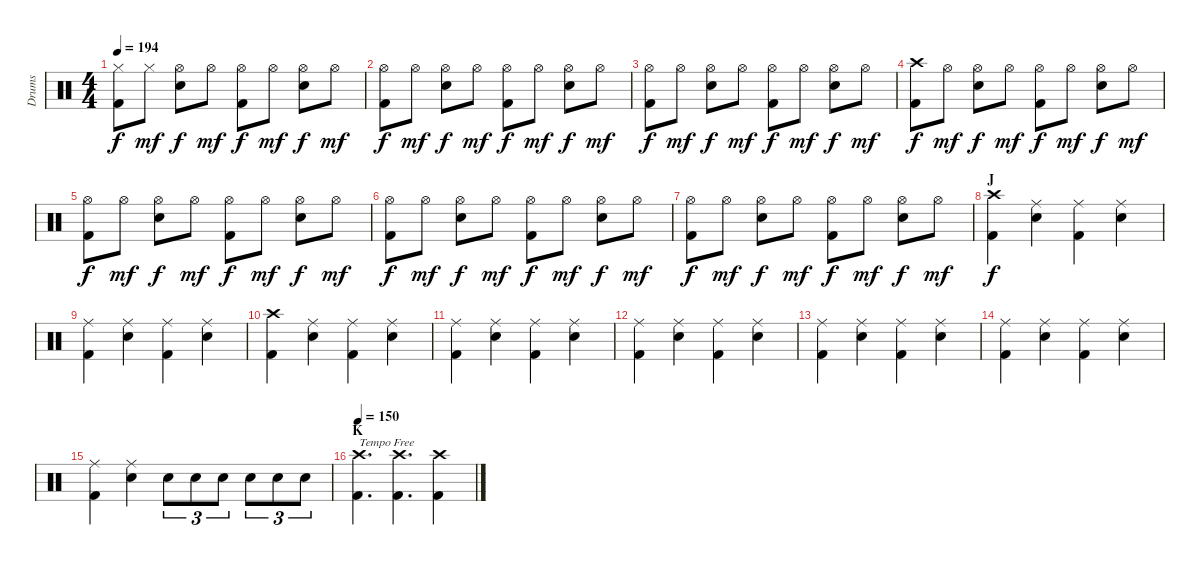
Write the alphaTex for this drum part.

\track ("Drums" "Drums") {instrument percussion}
\staff {score}
\articulation defaults
\ts (4 4)
\tempo 194
\clef neutral
\ks c
("Hi-Hat (closed)" "Kick (hit) 2").8{dy f} "Hi-Hat (closed)".8{dy mf} ("Hi-Hat (open)" "Electric Snare (hit)").8{dy f} "Hi-Hat (open)".8{dy mf} ("Hi-Hat (open)" "Kick (hit) 2").8{dy f} "Hi-Hat (open)".8{dy mf} ("Hi-Hat (open)" "Electric Snare (hit)").8{dy f} "Hi-Hat (open)".8{dy mf} |
("Hi-Hat (open)" "Kick (hit) 2").8{dy f} "Hi-Hat (open)".8{dy mf} ("Hi-Hat (open)" "Electric Snare (hit)").8{dy f} "Hi-Hat (open)".8{dy mf} ("Hi-Hat (open)" "Kick (hit) 2").8{dy f} "Hi-Hat (open)".8{dy mf} ("Hi-Hat (open)" "Electric Snare (hit)").8{dy f} "Hi-Hat (open)".8{dy mf} |
("Hi-Hat (open)" "Kick (hit) 2").8{dy f} "Hi-Hat (open)".8{dy mf} ("Hi-Hat (open)" "Electric Snare (hit)").8{dy f} "Hi-Hat (open)".8{dy mf} ("Hi-Hat (open)" "Kick (hit) 2").8{dy f} "Hi-Hat (open)".8{dy mf} ("Hi-Hat (open)" "Electric Snare (hit)").8{dy f} "Hi-Hat (open)".8{dy mf} |
("Crash high (hit)" "Kick (hit) 2").8{dy f} "Hi-Hat (open)".8{dy mf} ("Hi-Hat (open)" "Electric Snare (hit)").8{dy f} "Hi-Hat (open)".8{dy mf} ("Hi-Hat (open)" "Kick (hit) 2").8{dy f} "Hi-Hat (open)".8{dy mf} ("Hi-Hat (open)" "Electric Snare (hit)").8{dy f} "Hi-Hat (open)".8{dy mf} |
("Hi-Hat (open)" "Kick (hit) 2").8{dy f} "Hi-Hat (open)".8{dy mf} ("Hi-Hat (open)" "Electric Snare (hit)").8{dy f} "Hi-Hat (open)".8{dy mf} ("Hi-Hat (open)" "Kick (hit) 2").8{dy f} "Hi-Hat (open)".8{dy mf} ("Hi-Hat (open)" "Electric Snare (hit)").8{dy f} "Hi-Hat (open)".8{dy mf} |
("Hi-Hat (open)" "Kick (hit) 2").8{dy f} "Hi-Hat (open)".8{dy mf} ("Hi-Hat (open)" "Electric Snare (hit)").8{dy f} "Hi-Hat (open)".8{dy mf} ("Hi-Hat (open)" "Kick (hit) 2").8{dy f} "Hi-Hat (open)".8{dy mf} ("Hi-Hat (open)" "Electric Snare (hit)").8{dy f} "Hi-Hat (open)".8{dy mf} |
("Hi-Hat (open)" "Kick (hit) 2").8{dy f} "Hi-Hat (open)".8{dy mf} ("Hi-Hat (open)" "Electric Snare (hit)").8{dy f} "Hi-Hat (open)".8{dy mf} ("Hi-Hat (open)" "Kick (hit) 2").8{dy f} "Hi-Hat (open)".8{dy mf} ("Hi-Hat (open)" "Electric Snare (hit)").8{dy f} "Hi-Hat (open)".8{dy mf} |
\section ("" "J")
("Crash high (hit)" "Kick (hit) 2").4{dy f} ("Ride (middle)" "Electric Snare (hit)").4 ("Ride (middle)" "Kick (hit) 2").4 ("Ride (middle)" "Electric Snare (hit)").4 |
("Ride (middle)" "Kick (hit) 2").4 ("Ride (middle)" "Electric Snare (hit)").4 ("Ride (middle)" "Kick (hit) 2").4 ("Ride (middle)" "Electric Snare (hit)").4 |
("Crash high (hit)" "Kick (hit) 2").4 ("Ride (middle)" "Electric Snare (hit)").4 ("Ride (middle)" "Kick (hit) 2").4 ("Ride (middle)" "Electric Snare (hit)").4 |
("Ride (middle)" "Kick (hit) 2").4 ("Ride (middle)" "Electric Snare (hit)").4 ("Ride (middle)" "Kick (hit) 2").4 ("Ride (middle)" "Electric Snare (hit)").4 |
("Ride (middle)" "Kick (hit) 2").4 ("Ride (middle)" "Electric Snare (hit)").4 ("Ride (middle)" "Kick (hit) 2").4 ("Ride (middle)" "Electric Snare (hit)").4 |
("Ride (middle)" "Kick (hit) 2").4 ("Ride (middle)" "Electric Snare (hit)").4 ("Ride (middle)" "Kick (hit) 2").4 ("Ride (middle)" "Electric Snare (hit)").4 |
("Ride (middle)" "Kick (hit) 2").4 ("Ride (middle)" "Electric Snare (hit)").4 ("Ride (middle)" "Kick (hit) 2").4 ("Ride (middle)" "Electric Snare (hit)").4 |
("Ride (middle)" "Kick (hit) 2").4 ("Ride (middle)" "Electric Snare (hit)").4 "Electric Snare (hit)".8{tu (3 2)} "Electric Snare (hit)".8{tu (3 2)} "Electric Snare (hit)".8{tu (3 2)} "Electric Snare (hit)".8{tu (3 2)} "Electric Snare (hit)".8{tu (3 2)} "Electric Snare (hit)".8{tu (3 2)} |
\section ("" "K")
\tempo 150
("Crash high (hit)" "Kick (hit) 2").4{d txt "Tempo Free"} ("Crash high (hit)" "Kick (hit) 2").4{d} ("Crash high (hit)" "Kick (hit) 2").4
